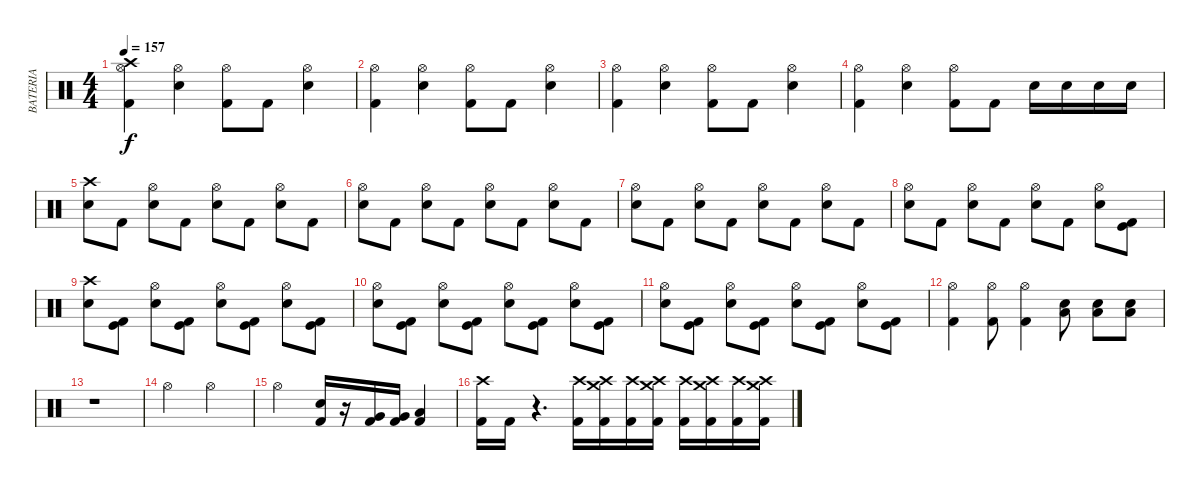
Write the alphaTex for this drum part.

\track ("BATERIA" "BATERIA") {instrument percussion}
\staff {score}
\articulation defaults
\ts (4 4)
\tempo 157
\clef neutral
\ks c
("Crash high (hit)" "Hi-Hat (open)" "Kick (hit) 2").4{dy f} ("Hi-Hat (open)" "Snare (hit) 2").4 ("Hi-Hat (open)" "Kick (hit) 2").8 "Kick (hit) 2".8 ("Hi-Hat (open)" "Snare (hit) 2").4 |
("Hi-Hat (open)" "Kick (hit) 2").4 ("Hi-Hat (open)" "Snare (hit) 2").4 ("Hi-Hat (open)" "Kick (hit) 2").8 "Kick (hit) 2".8 ("Hi-Hat (open)" "Snare (hit) 2").4 |
("Hi-Hat (open)" "Kick (hit) 2").4 ("Hi-Hat (open)" "Snare (hit) 2").4 ("Hi-Hat (open)" "Kick (hit) 2").8 "Kick (hit) 2".8 ("Hi-Hat (open)" "Snare (hit) 2").4 |
("Hi-Hat (open)" "Kick (hit) 2").4 ("Hi-Hat (open)" "Snare (hit) 2").4 ("Hi-Hat (open)" "Kick (hit) 2").8 "Kick (hit) 2".8 "Snare (hit) 2".16 "Snare (hit) 2".16 "Snare (hit) 2".16 "Snare (hit) 2".16 |
("Crash high (hit)" "Snare (hit) 2").8 "Kick (hit) 2".8 ("Hi-Hat (open)" "Snare (hit) 2").8 "Kick (hit) 2".8 ("Hi-Hat (open)" "Snare (hit) 2").8 "Kick (hit) 2".8 ("Hi-Hat (open)" "Snare (hit) 2").8 "Kick (hit) 2".8 |
("Hi-Hat (open)" "Snare (hit) 2").8 "Kick (hit) 2".8 ("Hi-Hat (open)" "Snare (hit) 2").8 "Kick (hit) 2".8 ("Hi-Hat (open)" "Snare (hit) 2").8 "Kick (hit) 2".8 ("Hi-Hat (open)" "Snare (hit) 2").8 "Kick (hit) 2".8 |
("Hi-Hat (open)" "Snare (hit) 2").8 "Kick (hit) 2".8 ("Hi-Hat (open)" "Snare (hit) 2").8 "Kick (hit) 2".8 ("Hi-Hat (open)" "Snare (hit) 2").8 "Kick (hit) 2".8 ("Hi-Hat (open)" "Snare (hit) 2").8 "Kick (hit) 2".8 |
("Hi-Hat (open)" "Snare (hit) 2").8 "Kick (hit) 2".8 ("Hi-Hat (open)" "Snare (hit) 2").8 "Kick (hit) 2".8 ("Hi-Hat (open)" "Snare (hit) 2").8 "Kick (hit) 2".8 ("Hi-Hat (open)" "Snare (hit) 2").8 ("Kick (hit)" "Kick (hit) 2").8 |
("Crash high (hit)" "Snare (hit) 2").8 ("Kick (hit)" "Kick (hit) 2").8 ("Hi-Hat (open)" "Snare (hit) 2").8 ("Kick (hit)" "Kick (hit) 2").8 ("Hi-Hat (open)" "Snare (hit) 2").8 ("Kick (hit)" "Kick (hit) 2").8 ("Hi-Hat (open)" "Snare (hit) 2").8 ("Kick (hit)" "Kick (hit) 2").8 |
("Hi-Hat (open)" "Snare (hit) 2").8 ("Kick (hit)" "Kick (hit) 2").8 ("Hi-Hat (open)" "Snare (hit) 2").8 ("Kick (hit)" "Kick (hit) 2").8 ("Hi-Hat (open)" "Snare (hit) 2").8 ("Kick (hit)" "Kick (hit) 2").8 ("Hi-Hat (open)" "Snare (hit) 2").8 ("Kick (hit)" "Kick (hit) 2").8 |
("Hi-Hat (open)" "Snare (hit) 2").8 ("Kick (hit)" "Kick (hit) 2").8 ("Hi-Hat (open)" "Snare (hit) 2").8 ("Kick (hit)" "Kick (hit) 2").8 ("Hi-Hat (open)" "Snare (hit) 2").8 ("Kick (hit)" "Kick (hit) 2").8 ("Hi-Hat (open)" "Snare (hit) 2").8 ("Kick (hit)" "Kick (hit) 2").8 |
("Hi-Hat (open)" "Kick (hit) 2").4 ("Hi-Hat (open)" "Kick (hit) 2").8 ("Hi-Hat (open)" "Kick (hit) 2").4 ("Snare (hit) 2" "Low Floor Tom (hit)").8 ("Snare (hit) 2" "Low Floor Tom (hit)").8 ("Snare (hit) 2" "Low Floor Tom (hit)").8 |
r.1 |
"Hi-Hat (open)".2 "Hi-Hat (open)".2 |
"Hi-Hat (open)".2 ("Snare (hit) 2" "Kick (hit) 2").16 r.16 ("Very Low Tom (hit)" "Kick (hit) 2").16 ("Very Low Tom (hit)" "Kick (hit) 2").16 ("Low Floor Tom (hit)" "Kick (hit) 2").4 |
("Crash high (hit)" "Kick (hit) 2").16 "Kick (hit) 2".16 r.4{d} ("Crash high (hit)" "Kick (hit) 2").16 ("Crash medium (hit)" "Crash high (hit)" "Kick (hit) 2").16 ("Crash high (hit)" "Kick (hit) 2").16 ("Crash medium (hit)" "Crash high (hit)" "Kick (hit) 2").16 ("Crash high (hit)" "Kick (hit) 2").16 ("Crash medium (hit)" "Crash high (hit)" "Kick (hit) 2").16 ("Crash high (hit)" "Kick (hit) 2").16 ("Crash medium (hit)" "Crash high (hit)" "Kick (hit) 2").16
